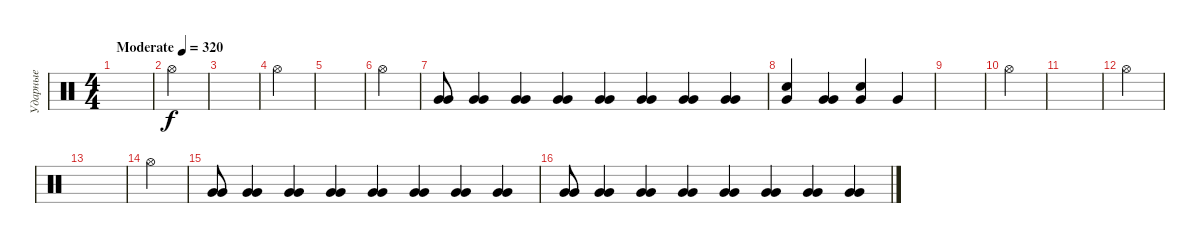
\track ("Ударные" "Ударные") {instrument percussion}
\staff {score}
\articulation defaults
\ts (4 4)
\tempo (320 "Moderate")
\clef neutral
\ks c
|
"Hi-Hat (open)".4 |
|
"Hi-Hat (open)".4 |
|
"Hi-Hat (open)".4 |
("Very Low Tom (hit)" "Very Low Tom (hit)").8 ("Very Low Tom (hit)" "Very Low Tom (hit)").4 ("Very Low Tom (hit)" "Very Low Tom (hit)").4 ("Very Low Tom (hit)" "Very Low Tom (hit)").4 ("Very Low Tom (hit)" "Very Low Tom (hit)").4 ("Very Low Tom (hit)" "Very Low Tom (hit)").4 ("Very Low Tom (hit)" "Very Low Tom (hit)").4 ("Very Low Tom (hit)" "Very Low Tom (hit)").4 |
("Electric Snare (hit)" "Very Low Tom (hit)").4 ("Very Low Tom (hit)" "Very Low Tom (hit)").4 ("Electric Snare (hit)" "Very Low Tom (hit)").4 "Very Low Tom (hit)".4 |
|
"Hi-Hat (open)".4 |
|
"Hi-Hat (open)".4 |
|
"Hi-Hat (open)".4 |
("Very Low Tom (hit)" "Very Low Tom (hit)").8 ("Very Low Tom (hit)" "Very Low Tom (hit)").4 ("Very Low Tom (hit)" "Very Low Tom (hit)").4 ("Very Low Tom (hit)" "Very Low Tom (hit)").4 ("Very Low Tom (hit)" "Very Low Tom (hit)").4 ("Very Low Tom (hit)" "Very Low Tom (hit)").4 ("Very Low Tom (hit)" "Very Low Tom (hit)").4 ("Very Low Tom (hit)" "Very Low Tom (hit)").4 |
("Very Low Tom (hit)" "Very Low Tom (hit)").8 ("Very Low Tom (hit)" "Very Low Tom (hit)").4 ("Very Low Tom (hit)" "Very Low Tom (hit)").4 ("Very Low Tom (hit)" "Very Low Tom (hit)").4 ("Very Low Tom (hit)" "Very Low Tom (hit)").4 ("Very Low Tom (hit)" "Very Low Tom (hit)").4 ("Very Low Tom (hit)" "Very Low Tom (hit)").4 ("Very Low Tom (hit)" "Very Low Tom (hit)").4
